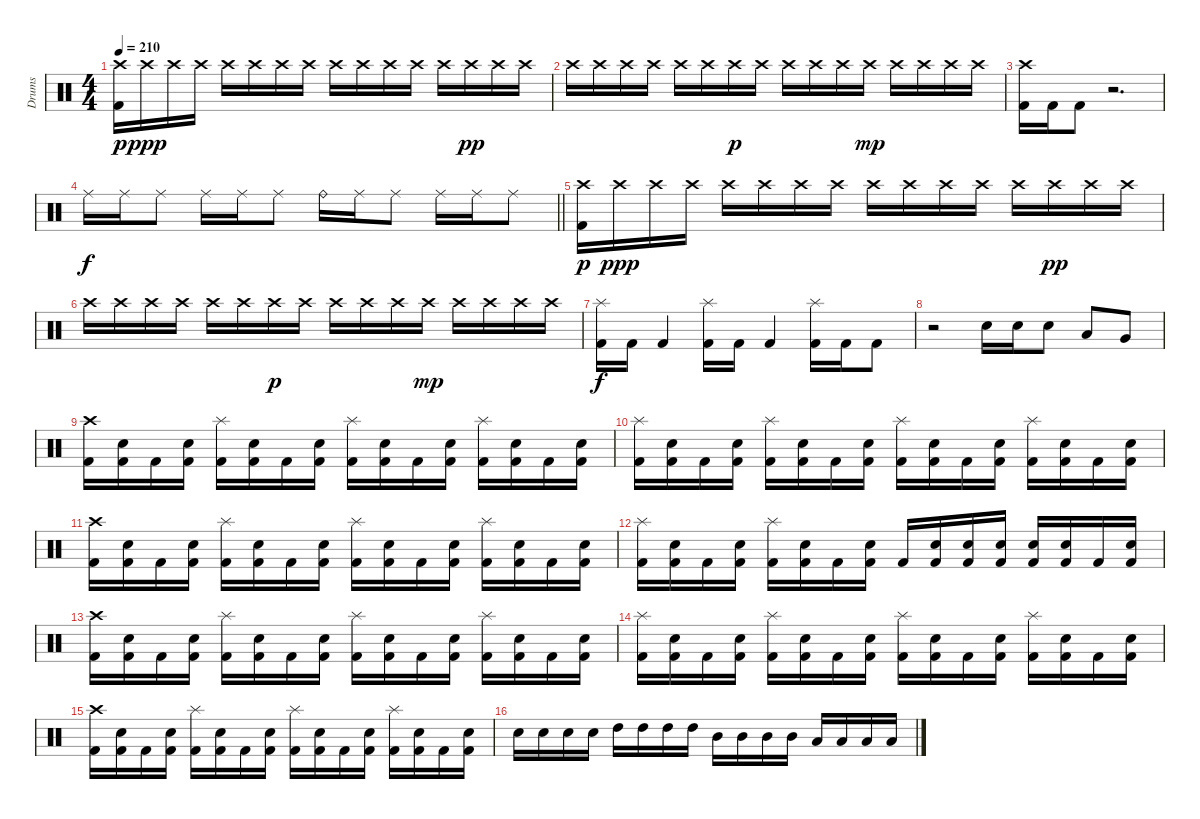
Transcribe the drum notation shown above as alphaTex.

\track ("Drums" "Drums") {instrument percussion}
\staff {score}
\articulation defaults
\ts (4 4)
\section ("" "")
\tempo 210
\clef neutral
\ks c
("Crash high (hit)" "Kick (hit) 2").16{dy p} "Crash high (hit)".16{dy ppp} "Crash high (hit)".16 "Crash high (hit)".16 "Crash high (hit)".16 "Crash high (hit)".16 "Crash high (hit)".16 "Crash high (hit)".16 "Crash high (hit)".16 "Crash high (hit)".16 "Crash high (hit)".16 "Crash high (hit)".16 "Crash high (hit)".16 "Crash high (hit)".16{dy pp} "Crash high (hit)".16 "Crash high (hit)".16 |
"Crash high (hit)".16 "Crash high (hit)".16 "Crash high (hit)".16 "Crash high (hit)".16 "Crash high (hit)".16 "Crash high (hit)".16 "Crash high (hit)".16{dy p} "Crash high (hit)".16 "Crash high (hit)".16 "Crash high (hit)".16 "Crash high (hit)".16 "Crash high (hit)".16{dy mp} "Crash high (hit)".16 "Crash high (hit)".16 "Crash high (hit)".16 "Crash high (hit)".16 |
("Crash high (hit)" "Kick (hit) 2").16 "Kick (hit) 2".16 "Kick (hit) 2".8 r.2{d} |
\barLineRight lightlight "Ride (middle)".16{dy f} "Ride (middle)".16 "Ride (middle)".8 "Ride (middle)".16 "Ride (middle)".16 "Ride (middle)".8 "Ride (bell)".16 "Ride (middle)".16 "Ride (middle)".8 "Ride (middle)".16 "Ride (middle)".16 "Ride (middle)".8
|
\section ("" "")
("Crash high (hit)" "Kick (hit) 2").16{dy p} "Crash high (hit)".16{dy ppp} "Crash high (hit)".16 "Crash high (hit)".16 "Crash high (hit)".16 "Crash high (hit)".16 "Crash high (hit)".16 "Crash high (hit)".16 "Crash high (hit)".16 "Crash high (hit)".16 "Crash high (hit)".16 "Crash high (hit)".16 "Crash high (hit)".16 "Crash high (hit)".16{dy pp} "Crash high (hit)".16 "Crash high (hit)".16 |
"Crash high (hit)".16 "Crash high (hit)".16 "Crash high (hit)".16 "Crash high (hit)".16 "Crash high (hit)".16 "Crash high (hit)".16 "Crash high (hit)".16{dy p} "Crash high (hit)".16 "Crash high (hit)".16 "Crash high (hit)".16 "Crash high (hit)".16 "Crash high (hit)".16{dy mp} "Crash high (hit)".16 "Crash high (hit)".16 "Crash high (hit)".16 "Crash high (hit)".16 |
("Splash (hit)" "Kick (hit) 2").16{dy f} "Kick (hit) 2".16 "Kick (hit) 2".4 ("Splash (hit)" "Kick (hit) 2").16 "Kick (hit) 2".16 "Kick (hit) 2".4 ("Splash (hit)" "Kick (hit) 2").16 "Kick (hit) 2".16 "Kick (hit) 2".8 |
r.2 "Electric Snare (hit)".16 "Electric Snare (hit)".16 "Electric Snare (hit)".8 "Low Tom (hit)".8 "Very Low Tom (hit)".8 |
("Crash high (hit)" "Kick (hit) 2").16 ("Electric Snare (hit)" "Kick (hit) 2").16 "Kick (hit) 2".16 ("Electric Snare (hit)" "Kick (hit) 2").16 ("Splash (hit)" "Kick (hit) 2").16 ("Electric Snare (hit)" "Kick (hit) 2").16 "Kick (hit) 2".16 ("Electric Snare (hit)" "Kick (hit) 2").16 ("Splash (hit)" "Kick (hit) 2").16 ("Electric Snare (hit)" "Kick (hit) 2").16 "Kick (hit) 2".16 ("Electric Snare (hit)" "Kick (hit) 2").16 ("Splash (hit)" "Kick (hit) 2").16 ("Electric Snare (hit)" "Kick (hit) 2").16 "Kick (hit) 2".16 ("Electric Snare (hit)" "Kick (hit) 2").16 |
("Splash (hit)" "Kick (hit) 2").16 ("Electric Snare (hit)" "Kick (hit) 2").16 "Kick (hit) 2".16 ("Electric Snare (hit)" "Kick (hit) 2").16 ("Splash (hit)" "Kick (hit) 2").16 ("Electric Snare (hit)" "Kick (hit) 2").16 "Kick (hit) 2".16 ("Electric Snare (hit)" "Kick (hit) 2").16 ("Splash (hit)" "Kick (hit) 2").16 ("Electric Snare (hit)" "Kick (hit) 2").16 "Kick (hit) 2".16 ("Electric Snare (hit)" "Kick (hit) 2").16 ("Splash (hit)" "Kick (hit) 2").16 ("Electric Snare (hit)" "Kick (hit) 2").16 "Kick (hit) 2".16 ("Electric Snare (hit)" "Kick (hit) 2").16 |
("Crash high (hit)" "Kick (hit) 2").16 ("Electric Snare (hit)" "Kick (hit) 2").16 "Kick (hit) 2".16 ("Electric Snare (hit)" "Kick (hit) 2").16 ("Splash (hit)" "Kick (hit) 2").16 ("Electric Snare (hit)" "Kick (hit) 2").16 "Kick (hit) 2".16 ("Electric Snare (hit)" "Kick (hit) 2").16 ("Splash (hit)" "Kick (hit) 2").16 ("Electric Snare (hit)" "Kick (hit) 2").16 "Kick (hit) 2".16 ("Electric Snare (hit)" "Kick (hit) 2").16 ("Splash (hit)" "Kick (hit) 2").16 ("Electric Snare (hit)" "Kick (hit) 2").16 "Kick (hit) 2".16 ("Electric Snare (hit)" "Kick (hit) 2").16 |
("Splash (hit)" "Kick (hit) 2").16 ("Electric Snare (hit)" "Kick (hit) 2").16 "Kick (hit) 2".16 ("Electric Snare (hit)" "Kick (hit) 2").16 ("Splash (hit)" "Kick (hit) 2").16 ("Electric Snare (hit)" "Kick (hit) 2").16 "Kick (hit) 2".16 ("Electric Snare (hit)" "Kick (hit) 2").16 "Kick (hit) 2".16 ("Electric Snare (hit)" "Kick (hit) 2").16 ("Electric Snare (hit)" "Kick (hit) 2").16 ("Electric Snare (hit)" "Kick (hit) 2").16 ("Electric Snare (hit)" "Kick (hit) 2").16 ("Electric Snare (hit)" "Kick (hit) 2").16 "Kick (hit) 2".16 ("Electric Snare (hit)" "Kick (hit) 2").16 |
("Crash high (hit)" "Kick (hit) 2").16 ("Electric Snare (hit)" "Kick (hit) 2").16 "Kick (hit) 2".16 ("Electric Snare (hit)" "Kick (hit) 2").16 ("Splash (hit)" "Kick (hit) 2").16 ("Electric Snare (hit)" "Kick (hit) 2").16 "Kick (hit) 2".16 ("Electric Snare (hit)" "Kick (hit) 2").16 ("Splash (hit)" "Kick (hit) 2").16 ("Electric Snare (hit)" "Kick (hit) 2").16 "Kick (hit) 2".16 ("Electric Snare (hit)" "Kick (hit) 2").16 ("Splash (hit)" "Kick (hit) 2").16 ("Electric Snare (hit)" "Kick (hit) 2").16 "Kick (hit) 2".16 ("Electric Snare (hit)" "Kick (hit) 2").16 |
("Splash (hit)" "Kick (hit) 2").16 ("Electric Snare (hit)" "Kick (hit) 2").16 "Kick (hit) 2".16 ("Electric Snare (hit)" "Kick (hit) 2").16 ("Splash (hit)" "Kick (hit) 2").16 ("Electric Snare (hit)" "Kick (hit) 2").16 "Kick (hit) 2".16 ("Electric Snare (hit)" "Kick (hit) 2").16 ("Splash (hit)" "Kick (hit) 2").16 ("Electric Snare (hit)" "Kick (hit) 2").16 "Kick (hit) 2".16 ("Electric Snare (hit)" "Kick (hit) 2").16 ("Splash (hit)" "Kick (hit) 2").16 ("Electric Snare (hit)" "Kick (hit) 2").16 "Kick (hit) 2".16 ("Electric Snare (hit)" "Kick (hit) 2").16 |
("Crash high (hit)" "Kick (hit) 2").16 ("Electric Snare (hit)" "Kick (hit) 2").16 "Kick (hit) 2".16 ("Electric Snare (hit)" "Kick (hit) 2").16 ("Splash (hit)" "Kick (hit) 2").16 ("Electric Snare (hit)" "Kick (hit) 2").16 "Kick (hit) 2".16 ("Electric Snare (hit)" "Kick (hit) 2").16 ("Splash (hit)" "Kick (hit) 2").16 ("Electric Snare (hit)" "Kick (hit) 2").16 "Kick (hit) 2".16 ("Electric Snare (hit)" "Kick (hit) 2").16 ("Splash (hit)" "Kick (hit) 2").16 ("Electric Snare (hit)" "Kick (hit) 2").16 "Kick (hit) 2".16 ("Electric Snare (hit)" "Kick (hit) 2").16 |
"Electric Snare (hit)".16 "Electric Snare (hit)".16 "Electric Snare (hit)".16 "Electric Snare (hit)".16 "High Tom (hit)".16 "High Tom (hit)".16 "High Tom (hit)".16 "High Tom (hit)".16 "Mid Tom (hit)".16 "Mid Tom (hit)".16 "Mid Tom (hit)".16 "Mid Tom (hit)".16 "Low Tom (hit)".16 "Low Tom (hit)".16 "Low Tom (hit)".16 "Low Tom (hit)".16
